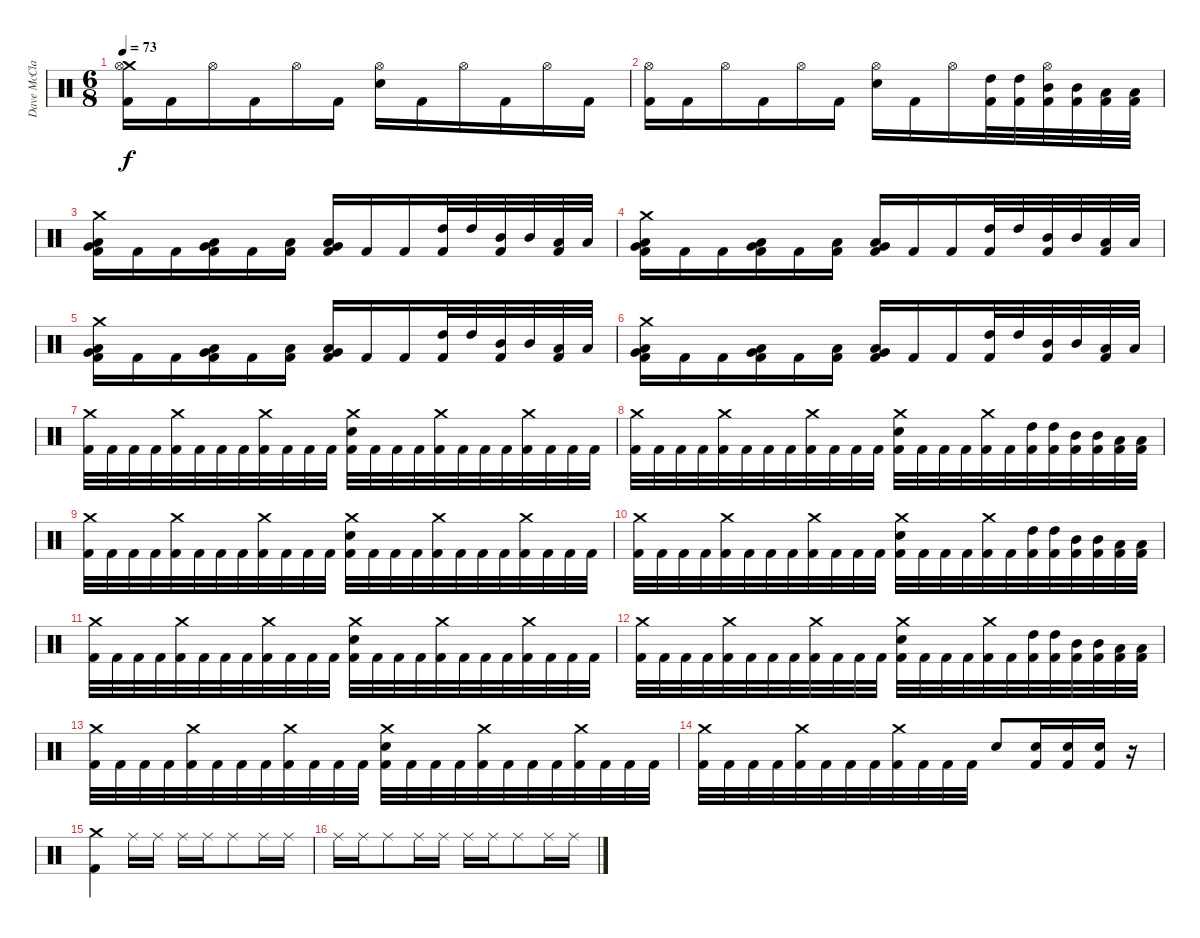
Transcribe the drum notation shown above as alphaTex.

\track ("Dave McClain" "Dave McCla") {instrument percussion}
\staff {score}
\articulation defaults
\ts (6 8)
\tempo 73
\clef neutral
\ks c
("Crash medium (hit)" "Hi-Hat (open)" "Kick (hit) 2").16{dy f} "Kick (hit) 2".16 "Hi-Hat (open)".16 "Kick (hit) 2".16 "Hi-Hat (open)".16 "Kick (hit) 2".16 ("Hi-Hat (open)" "Snare (hit) 2").16 "Kick (hit) 2".16 "Hi-Hat (open)".16 "Kick (hit) 2".16 "Hi-Hat (open)".16 "Kick (hit) 2".16 |
("Hi-Hat (open)" "Kick (hit) 2").16 "Kick (hit) 2".16 "Hi-Hat (open)".16 "Kick (hit) 2".16 "Hi-Hat (open)".16 "Kick (hit) 2".16 ("Hi-Hat (open)" "Snare (hit) 2").16 "Kick (hit) 2".16 "Hi-Hat (open)".16 ("High Tom (hit)" "Kick (hit) 2").32 ("High Tom (hit)" "Kick (hit) 2").32 ("Hi-Hat (open)" "Mid Tom (hit)" "Kick (hit) 2").32 ("Mid Tom (hit)" "Kick (hit) 2").32 ("Low Tom (hit)" "Kick (hit) 2").32 ("Low Tom (hit)" "Kick (hit) 2").32 |
("Crash medium (hit)" "Very Low Tom (hit)" "Low Floor Tom (hit)" "Kick (hit) 2").16 "Kick (hit) 2".16 "Kick (hit) 2".16 ("Very Low Tom (hit)" "Low Floor Tom (hit)" "Kick (hit) 2").16 "Kick (hit) 2".16 ("Low Floor Tom (hit)" "Kick (hit) 2").16 ("Very Low Tom (hit)" "Low Floor Tom (hit)" "Kick (hit) 2").16 "Kick (hit) 2".16 "Kick (hit) 2".16 ("High Tom (hit)" "Kick (hit) 2").32 "High Tom (hit)".32 ("Mid Tom (hit)" "Kick (hit) 2").32 "Mid Tom (hit)".32 ("Low Tom (hit)" "Kick (hit) 2").32 "Low Tom (hit)".32 |
("Crash medium (hit)" "Very Low Tom (hit)" "Low Floor Tom (hit)" "Kick (hit) 2").16 "Kick (hit) 2".16 "Kick (hit) 2".16 ("Very Low Tom (hit)" "Low Floor Tom (hit)" "Kick (hit) 2").16 "Kick (hit) 2".16 ("Low Floor Tom (hit)" "Kick (hit) 2").16 ("Very Low Tom (hit)" "Low Floor Tom (hit)" "Kick (hit) 2").16 "Kick (hit) 2".16 "Kick (hit) 2".16 ("High Tom (hit)" "Kick (hit) 2").32 "High Tom (hit)".32 ("Mid Tom (hit)" "Kick (hit) 2").32 "Mid Tom (hit)".32 ("Low Tom (hit)" "Kick (hit) 2").32 "Low Tom (hit)".32 |
("Crash medium (hit)" "Very Low Tom (hit)" "Low Floor Tom (hit)" "Kick (hit) 2").16 "Kick (hit) 2".16 "Kick (hit) 2".16 ("Very Low Tom (hit)" "Low Floor Tom (hit)" "Kick (hit) 2").16 "Kick (hit) 2".16 ("Low Floor Tom (hit)" "Kick (hit) 2").16 ("Very Low Tom (hit)" "Low Floor Tom (hit)" "Kick (hit) 2").16 "Kick (hit) 2".16 "Kick (hit) 2".16 ("High Tom (hit)" "Kick (hit) 2").32 "High Tom (hit)".32 ("Mid Tom (hit)" "Kick (hit) 2").32 "Mid Tom (hit)".32 ("Low Tom (hit)" "Kick (hit) 2").32 "Low Tom (hit)".32 |
("Crash medium (hit)" "Very Low Tom (hit)" "Low Floor Tom (hit)" "Kick (hit) 2").16 "Kick (hit) 2".16 "Kick (hit) 2".16 ("Very Low Tom (hit)" "Low Floor Tom (hit)" "Kick (hit) 2").16 "Kick (hit) 2".16 ("Low Floor Tom (hit)" "Kick (hit) 2").16 ("Very Low Tom (hit)" "Low Floor Tom (hit)" "Kick (hit) 2").16 "Kick (hit) 2".16 "Kick (hit) 2".16 ("High Tom (hit)" "Kick (hit) 2").32 "High Tom (hit)".32 ("Mid Tom (hit)" "Kick (hit) 2").32 "Mid Tom (hit)".32 ("Low Tom (hit)" "Kick (hit) 2").32 "Low Tom (hit)".32 |
("Crash medium (hit)" "Kick (hit) 2").32 "Kick (hit) 2".32 "Kick (hit) 2".32 "Kick (hit) 2".32 ("Crash medium (hit)" "Kick (hit) 2").32 "Kick (hit) 2".32 "Kick (hit) 2".32 "Kick (hit) 2".32 ("Crash medium (hit)" "Kick (hit) 2").32 "Kick (hit) 2".32 "Kick (hit) 2".32 "Kick (hit) 2".32 ("Crash medium (hit)" "Snare (hit) 2" "Kick (hit) 2").32 "Kick (hit) 2".32 "Kick (hit) 2".32 "Kick (hit) 2".32 ("Crash medium (hit)" "Kick (hit) 2").32 "Kick (hit) 2".32 "Kick (hit) 2".32 "Kick (hit) 2".32 ("Crash medium (hit)" "Kick (hit) 2").32 "Kick (hit) 2".32 "Kick (hit) 2".32 "Kick (hit) 2".32 |
("Crash medium (hit)" "Kick (hit) 2").32 "Kick (hit) 2".32 "Kick (hit) 2".32 "Kick (hit) 2".32 ("Crash medium (hit)" "Kick (hit) 2").32 "Kick (hit) 2".32 "Kick (hit) 2".32 "Kick (hit) 2".32 ("Crash medium (hit)" "Kick (hit) 2").32 "Kick (hit) 2".32 "Kick (hit) 2".32 "Kick (hit) 2".32 ("Crash medium (hit)" "Snare (hit) 2" "Kick (hit) 2").32 "Kick (hit) 2".32 "Kick (hit) 2".32 "Kick (hit) 2".32 ("Crash medium (hit)" "Kick (hit) 2").32 "Kick (hit) 2".32 ("High Tom (hit)" "Kick (hit) 2").32 ("High Tom (hit)" "Kick (hit) 2").32 ("Mid Tom (hit)" "Kick (hit) 2").32 ("Mid Tom (hit)" "Kick (hit) 2").32 ("Low Tom (hit)" "Kick (hit) 2").32 ("Low Tom (hit)" "Kick (hit) 2").32 |
("Crash medium (hit)" "Kick (hit) 2").32 "Kick (hit) 2".32 "Kick (hit) 2".32 "Kick (hit) 2".32 ("Crash medium (hit)" "Kick (hit) 2").32 "Kick (hit) 2".32 "Kick (hit) 2".32 "Kick (hit) 2".32 ("Crash medium (hit)" "Kick (hit) 2").32 "Kick (hit) 2".32 "Kick (hit) 2".32 "Kick (hit) 2".32 ("Crash medium (hit)" "Snare (hit) 2" "Kick (hit) 2").32 "Kick (hit) 2".32 "Kick (hit) 2".32 "Kick (hit) 2".32 ("Crash medium (hit)" "Kick (hit) 2").32 "Kick (hit) 2".32 "Kick (hit) 2".32 "Kick (hit) 2".32 ("Crash medium (hit)" "Kick (hit) 2").32 "Kick (hit) 2".32 "Kick (hit) 2".32 "Kick (hit) 2".32 |
("Crash medium (hit)" "Kick (hit) 2").32 "Kick (hit) 2".32 "Kick (hit) 2".32 "Kick (hit) 2".32 ("Crash medium (hit)" "Kick (hit) 2").32 "Kick (hit) 2".32 "Kick (hit) 2".32 "Kick (hit) 2".32 ("Crash medium (hit)" "Kick (hit) 2").32 "Kick (hit) 2".32 "Kick (hit) 2".32 "Kick (hit) 2".32 ("Crash medium (hit)" "Snare (hit) 2" "Kick (hit) 2").32 "Kick (hit) 2".32 "Kick (hit) 2".32 "Kick (hit) 2".32 ("Crash medium (hit)" "Kick (hit) 2").32 "Kick (hit) 2".32 ("High Tom (hit)" "Kick (hit) 2").32 ("High Tom (hit)" "Kick (hit) 2").32 ("Mid Tom (hit)" "Kick (hit) 2").32 ("Mid Tom (hit)" "Kick (hit) 2").32 ("Low Tom (hit)" "Kick (hit) 2").32 ("Low Tom (hit)" "Kick (hit) 2").32 |
("Crash medium (hit)" "Kick (hit) 2").32 "Kick (hit) 2".32 "Kick (hit) 2".32 "Kick (hit) 2".32 ("Crash medium (hit)" "Kick (hit) 2").32 "Kick (hit) 2".32 "Kick (hit) 2".32 "Kick (hit) 2".32 ("Crash medium (hit)" "Kick (hit) 2").32 "Kick (hit) 2".32 "Kick (hit) 2".32 "Kick (hit) 2".32 ("Crash medium (hit)" "Snare (hit) 2" "Kick (hit) 2").32 "Kick (hit) 2".32 "Kick (hit) 2".32 "Kick (hit) 2".32 ("Crash medium (hit)" "Kick (hit) 2").32 "Kick (hit) 2".32 "Kick (hit) 2".32 "Kick (hit) 2".32 ("Crash medium (hit)" "Kick (hit) 2").32 "Kick (hit) 2".32 "Kick (hit) 2".32 "Kick (hit) 2".32 |
("Crash medium (hit)" "Kick (hit) 2").32 "Kick (hit) 2".32 "Kick (hit) 2".32 "Kick (hit) 2".32 ("Crash medium (hit)" "Kick (hit) 2").32 "Kick (hit) 2".32 "Kick (hit) 2".32 "Kick (hit) 2".32 ("Crash medium (hit)" "Kick (hit) 2").32 "Kick (hit) 2".32 "Kick (hit) 2".32 "Kick (hit) 2".32 ("Crash medium (hit)" "Snare (hit) 2" "Kick (hit) 2").32 "Kick (hit) 2".32 "Kick (hit) 2".32 "Kick (hit) 2".32 ("Crash medium (hit)" "Kick (hit) 2").32 "Kick (hit) 2".32 ("High Tom (hit)" "Kick (hit) 2").32 ("High Tom (hit)" "Kick (hit) 2").32 ("Mid Tom (hit)" "Kick (hit) 2").32 ("Mid Tom (hit)" "Kick (hit) 2").32 ("Low Tom (hit)" "Kick (hit) 2").32 ("Low Tom (hit)" "Kick (hit) 2").32 |
("Crash medium (hit)" "Kick (hit) 2").32 "Kick (hit) 2".32 "Kick (hit) 2".32 "Kick (hit) 2".32 ("Crash medium (hit)" "Kick (hit) 2").32 "Kick (hit) 2".32 "Kick (hit) 2".32 "Kick (hit) 2".32 ("Crash medium (hit)" "Kick (hit) 2").32 "Kick (hit) 2".32 "Kick (hit) 2".32 "Kick (hit) 2".32 ("Crash medium (hit)" "Snare (hit) 2" "Kick (hit) 2").32 "Kick (hit) 2".32 "Kick (hit) 2".32 "Kick (hit) 2".32 ("Crash medium (hit)" "Kick (hit) 2").32 "Kick (hit) 2".32 "Kick (hit) 2".32 "Kick (hit) 2".32 ("Crash medium (hit)" "Kick (hit) 2").32 "Kick (hit) 2".32 "Kick (hit) 2".32 "Kick (hit) 2".32 |
("Crash medium (hit)" "Kick (hit) 2").32 "Kick (hit) 2".32 "Kick (hit) 2".32 "Kick (hit) 2".32 ("Crash medium (hit)" "Kick (hit) 2").32 "Kick (hit) 2".32 "Kick (hit) 2".32 "Kick (hit) 2".32 ("Crash medium (hit)" "Kick (hit) 2").32 "Kick (hit) 2".32 "Kick (hit) 2".32 "Kick (hit) 2".32 "Snare (hit) 2".8 ("Snare (hit) 2" "Kick (hit) 2").16 ("Snare (hit) 2" "Kick (hit) 2").16 ("Snare (hit) 2" "Kick (hit) 2").16 r.16 |
("Crash medium (hit)" "Kick (hit) 2").4 "Ride (middle)".16 "Ride (middle)".16 "Ride (middle)".16 "Ride (middle)".16 "Ride (middle)".8 "Ride (middle)".16 "Ride (middle)".16 |
"Ride (middle)".16 "Ride (middle)".16 "Ride (middle)".8 "Ride (middle)".16 "Ride (middle)".16 "Ride (middle)".16 "Ride (middle)".16 "Ride (middle)".8 "Ride (middle)".16 "Ride (middle)".16
